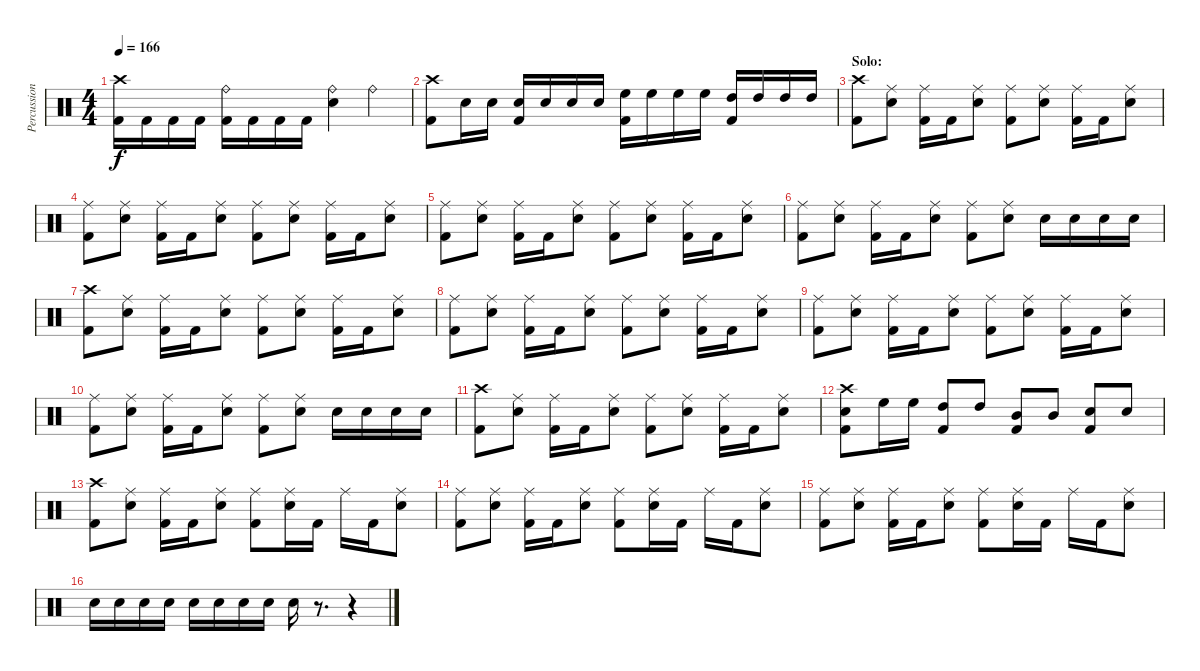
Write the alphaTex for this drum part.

\track ("Percussion" "Percussion") {instrument percussion}
\staff {score}
\articulation defaults
\ts (4 4)
\tempo 166
\clef neutral
\ks c
("Crash high (hit)" "Kick (hit) 2").16{dy f} "Kick (hit) 2".16 "Kick (hit) 2".16 "Kick (hit) 2".16 ("Ride (bell)" "Kick (hit) 2").16 "Kick (hit) 2".16 "Kick (hit) 2".16 "Kick (hit) 2".16 ("Ride (bell)" "Electric Snare (hit)").4 "Ride (bell)".4 |
("Crash high (hit)" "Kick (hit) 2").8 "Electric Snare (hit)".16 "Electric Snare (hit)".16 ("Electric Snare (hit)" "Kick (hit) 2").16 "Electric Snare (hit)".16 "Electric Snare (hit)".16 "Electric Snare (hit)".16 ("High Floor Tom (hit)" "Kick (hit) 2").16 "High Floor Tom (hit)".16 "High Floor Tom (hit)".16 "High Floor Tom (hit)".16 ("High Tom (hit)" "Kick (hit) 2").16 "High Tom (hit)".16 "High Tom (hit)".16 "High Tom (hit)".16 |
\section ("" "Solo:")
("Crash high (hit)" "Kick (hit) 2").8 ("Ride (middle)" "Electric Snare (hit)").8 ("Ride (middle)" "Kick (hit) 2").16 "Kick (hit) 2".16 ("Ride (middle)" "Electric Snare (hit)").8 ("Ride (middle)" "Kick (hit) 2").8 ("Ride (middle)" "Electric Snare (hit)").8 ("Ride (middle)" "Kick (hit) 2").16 "Kick (hit) 2".16 ("Ride (middle)" "Electric Snare (hit)").8 |
("Ride (middle)" "Kick (hit) 2").8 ("Ride (middle)" "Electric Snare (hit)").8 ("Ride (middle)" "Kick (hit) 2").16 "Kick (hit) 2".16 ("Ride (middle)" "Electric Snare (hit)").8 ("Ride (middle)" "Kick (hit) 2").8 ("Ride (middle)" "Electric Snare (hit)").8 ("Ride (middle)" "Kick (hit) 2").16 "Kick (hit) 2".16 ("Ride (middle)" "Electric Snare (hit)").8 |
("Ride (middle)" "Kick (hit) 2").8 ("Ride (middle)" "Electric Snare (hit)").8 ("Ride (middle)" "Kick (hit) 2").16 "Kick (hit) 2".16 ("Ride (middle)" "Electric Snare (hit)").8 ("Ride (middle)" "Kick (hit) 2").8 ("Ride (middle)" "Electric Snare (hit)").8 ("Ride (middle)" "Kick (hit) 2").16 "Kick (hit) 2".16 ("Ride (middle)" "Electric Snare (hit)").8 |
("Ride (middle)" "Kick (hit) 2").8 ("Ride (middle)" "Electric Snare (hit)").8 ("Ride (middle)" "Kick (hit) 2").16 "Kick (hit) 2".16 ("Ride (middle)" "Electric Snare (hit)").8 ("Ride (middle)" "Kick (hit) 2").8 ("Ride (middle)" "Electric Snare (hit)").8 "Electric Snare (hit)".16 "Electric Snare (hit)".16 "Electric Snare (hit)".16 "Electric Snare (hit)".16 |
("Crash high (hit)" "Kick (hit) 2").8 ("Ride (middle)" "Electric Snare (hit)").8 ("Ride (middle)" "Kick (hit) 2").16 "Kick (hit) 2".16 ("Ride (middle)" "Electric Snare (hit)").8 ("Ride (middle)" "Kick (hit) 2").8 ("Ride (middle)" "Electric Snare (hit)").8 ("Ride (middle)" "Kick (hit) 2").16 "Kick (hit) 2".16 ("Ride (middle)" "Electric Snare (hit)").8 |
("Ride (middle)" "Kick (hit) 2").8 ("Ride (middle)" "Electric Snare (hit)").8 ("Ride (middle)" "Kick (hit) 2").16 "Kick (hit) 2".16 ("Ride (middle)" "Electric Snare (hit)").8 ("Ride (middle)" "Kick (hit) 2").8 ("Ride (middle)" "Electric Snare (hit)").8 ("Ride (middle)" "Kick (hit) 2").16 "Kick (hit) 2".16 ("Ride (middle)" "Electric Snare (hit)").8 |
("Ride (middle)" "Kick (hit) 2").8 ("Ride (middle)" "Electric Snare (hit)").8 ("Ride (middle)" "Kick (hit) 2").16 "Kick (hit) 2".16 ("Ride (middle)" "Electric Snare (hit)").8 ("Ride (middle)" "Kick (hit) 2").8 ("Ride (middle)" "Electric Snare (hit)").8 ("Ride (middle)" "Kick (hit) 2").16 "Kick (hit) 2".16 ("Ride (middle)" "Electric Snare (hit)").8 |
("Ride (middle)" "Kick (hit) 2").8 ("Ride (middle)" "Electric Snare (hit)").8 ("Ride (middle)" "Kick (hit) 2").16 "Kick (hit) 2".16 ("Ride (middle)" "Electric Snare (hit)").8 ("Ride (middle)" "Kick (hit) 2").8 ("Ride (middle)" "Electric Snare (hit)").8 "Electric Snare (hit)".16 "Electric Snare (hit)".16 "Electric Snare (hit)".16 "Electric Snare (hit)".16 |
("Crash high (hit)" "Kick (hit) 2").8 ("Ride (middle)" "Electric Snare (hit)").8 ("Ride (middle)" "Kick (hit) 2").16 "Kick (hit) 2".16 ("Ride (middle)" "Electric Snare (hit)").8 ("Ride (middle)" "Kick (hit) 2").8 ("Ride (middle)" "Electric Snare (hit)").8 ("Ride (middle)" "Kick (hit) 2").16 "Kick (hit) 2".16 ("Ride (middle)" "Electric Snare (hit)").8 |
("Crash high (hit)" "Electric Snare (hit)" "Kick (hit) 2").8 "High Floor Tom (hit)".16 "High Floor Tom (hit)".16 ("High Tom (hit)" "Kick (hit) 2").8 "High Tom (hit)".8 ("Mid Tom (hit)" "Kick (hit) 2").8 "Mid Tom (hit)".8 ("Electric Snare (hit)" "Kick (hit) 2").8 "Electric Snare (hit)".8 |
("Crash high (hit)" "Kick (hit) 2").8 ("Ride (middle)" "Electric Snare (hit)").8 ("Ride (middle)" "Kick (hit) 2").16 "Kick (hit) 2".16 ("Ride (middle)" "Electric Snare (hit)").8 ("Ride (middle)" "Kick (hit) 2").8 ("Ride (middle)" "Electric Snare (hit)").16 "Kick (hit) 2".16 "Ride (middle)".16 "Kick (hit) 2".16 ("Ride (middle)" "Electric Snare (hit)").8 |
("Ride (middle)" "Kick (hit) 2").8 ("Ride (middle)" "Electric Snare (hit)").8 ("Ride (middle)" "Kick (hit) 2").16 "Kick (hit) 2".16 ("Ride (middle)" "Electric Snare (hit)").8 ("Ride (middle)" "Kick (hit) 2").8 ("Ride (middle)" "Electric Snare (hit)").16 "Kick (hit) 2".16 "Ride (middle)".16 "Kick (hit) 2".16 ("Ride (middle)" "Electric Snare (hit)").8 |
("Ride (middle)" "Kick (hit) 2").8 ("Ride (middle)" "Electric Snare (hit)").8 ("Ride (middle)" "Kick (hit) 2").16 "Kick (hit) 2".16 ("Ride (middle)" "Electric Snare (hit)").8 ("Ride (middle)" "Kick (hit) 2").8 ("Ride (middle)" "Electric Snare (hit)").16 "Kick (hit) 2".16 "Ride (middle)".16 "Kick (hit) 2".16 ("Ride (middle)" "Electric Snare (hit)").8 |
"Electric Snare (hit)".16 "Electric Snare (hit)".16 "Electric Snare (hit)".16 "Electric Snare (hit)".16 "Electric Snare (hit)".16 "Electric Snare (hit)".16 "Electric Snare (hit)".16 "Electric Snare (hit)".16 "Electric Snare (hit)".16 r.8{d} r.4
